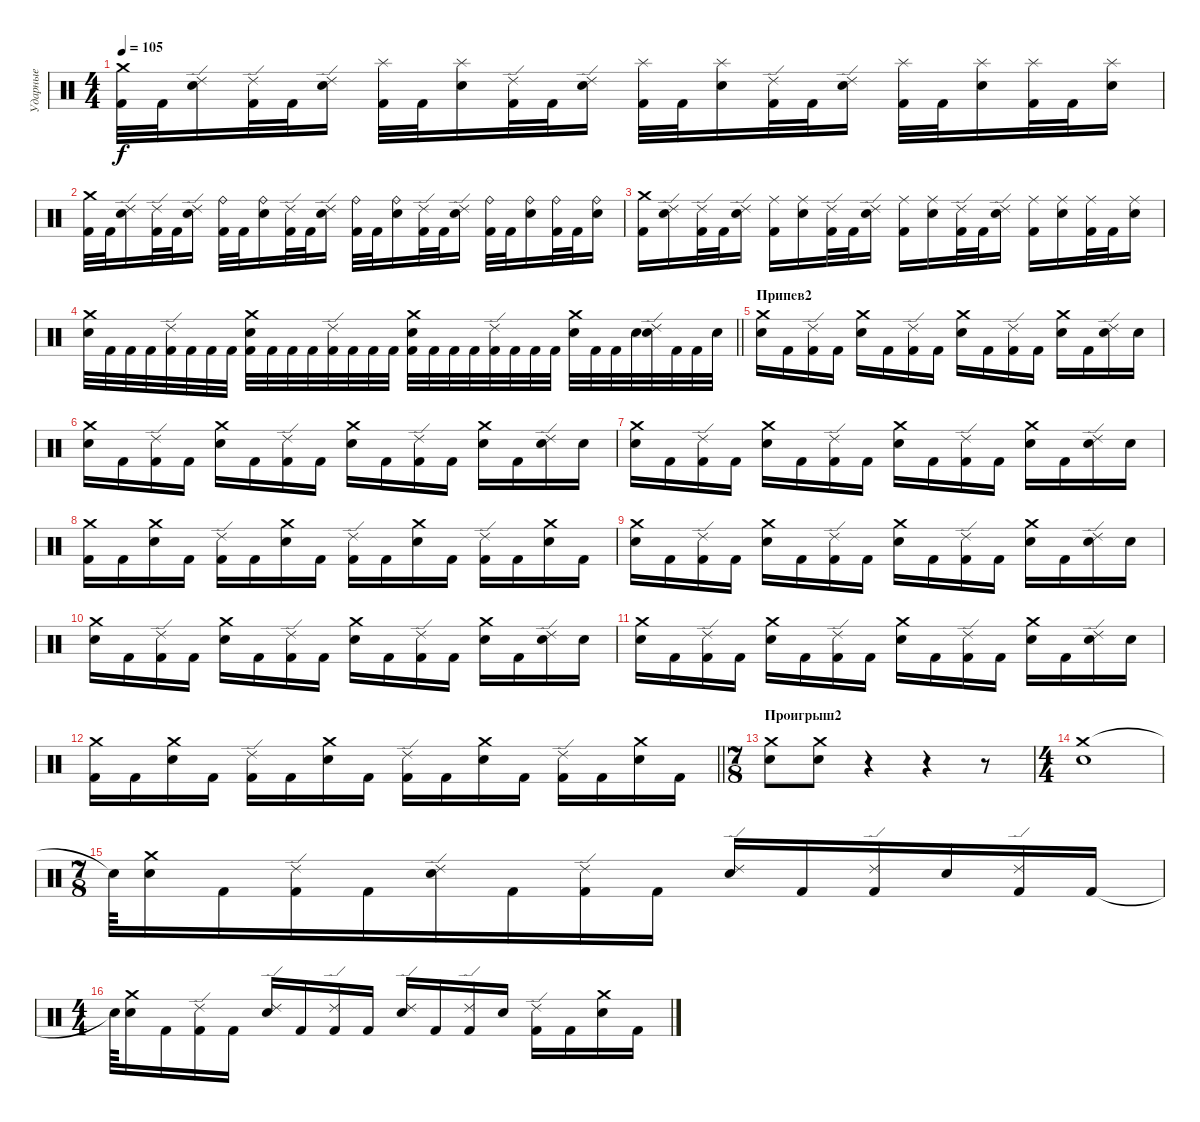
\track ("Ударные" "Ударные") {instrument percussion}
\staff {score}
\articulation defaults
\ts (4 4)
\tempo 105
\clef neutral
\ks c
("Crash medium (hit)" "Kick (hit) 2").32{dy f} "Kick (hit) 2".32 ("Ride (edge) 2" "Electric Snare (hit)").16 ("Ride (edge) 2" "Kick (hit) 2").32 "Kick (hit) 2".32 ("Ride (edge) 2" "Electric Snare (hit)").16 ("Splash (hit)" "Kick (hit) 2").32 "Kick (hit) 2".32 ("Splash (hit)" "Electric Snare (hit)").16 ("Ride (edge) 2" "Kick (hit) 2").32 "Kick (hit) 2".32 ("Ride (edge) 2" "Electric Snare (hit)").16 ("Splash (hit)" "Kick (hit) 2").32 "Kick (hit) 2".32 ("Splash (hit)" "Electric Snare (hit)").16 ("Ride (edge) 2" "Kick (hit) 2").32 "Kick (hit) 2".32 ("Ride (edge) 2" "Electric Snare (hit)").16 ("Splash (hit)" "Kick (hit) 2").32 "Kick (hit) 2".32 ("Splash (hit)" "Electric Snare (hit)").16 ("Splash (hit)" "Kick (hit) 2").32 "Kick (hit) 2".32 ("Splash (hit)" "Electric Snare (hit)").16 |
("Crash medium (hit)" "Kick (hit) 2").32 "Kick (hit) 2".32 ("Ride (edge) 2" "Electric Snare (hit)").16 ("Ride (edge) 2" "Kick (hit) 2").32 "Kick (hit) 2".32 ("Ride (edge) 2" "Electric Snare (hit)").16 ("Ride (bell)" "Kick (hit) 2").32 "Kick (hit) 2".32 ("Ride (bell)" "Electric Snare (hit)").16 ("Ride (edge) 2" "Kick (hit) 2").32 "Kick (hit) 2".32 ("Ride (edge) 2" "Electric Snare (hit)").16 ("Ride (bell)" "Kick (hit) 2").32 "Kick (hit) 2".32 ("Ride (bell)" "Electric Snare (hit)").16 ("Ride (edge) 2" "Kick (hit) 2").32 "Kick (hit) 2".32 ("Ride (edge) 2" "Electric Snare (hit)").16 ("Ride (bell)" "Kick (hit) 2").32 "Kick (hit) 2".32 ("Ride (bell)" "Electric Snare (hit)").16 ("Ride (bell)" "Kick (hit) 2").32 "Kick (hit) 2".32 ("Ride (bell)" "Electric Snare (hit)").16 |
("Crash medium (hit)" "Kick (hit) 2").16 ("Ride (edge) 2" "Electric Snare (hit)").16 ("Ride (edge) 2" "Kick (hit) 2").32 "Kick (hit) 2".32 ("Ride (edge) 2" "Electric Snare (hit)").16 ("Ride (middle)" "Kick (hit) 2").16 ("Ride (middle)" "Electric Snare (hit)").16 ("Ride (edge) 2" "Kick (hit) 2").32 "Kick (hit) 2".32 ("Ride (edge) 2" "Electric Snare (hit)").16 ("Ride (middle)" "Kick (hit) 2").16 ("Ride (middle)" "Electric Snare (hit)").16 ("Ride (edge) 2" "Kick (hit) 2").32 "Kick (hit) 2".32 ("Ride (edge) 2" "Electric Snare (hit)").16 ("Ride (middle)" "Kick (hit) 2").16 ("Ride (middle)" "Electric Snare (hit)").16 ("Ride (middle)" "Kick (hit) 2").32 "Kick (hit) 2".32 ("Ride (middle)" "Electric Snare (hit)").16 |
\barLineRight lightlight
("Crash medium (hit)" "Electric Snare (hit)").32 "Kick (hit) 2".32 "Kick (hit) 2".32 "Kick (hit) 2".32 ("Ride (edge) 2" "Kick (hit) 2").32 "Kick (hit) 2".32 "Kick (hit) 2".32 "Kick (hit) 2".32 ("Crash medium (hit)" "Kick (hit) 2" "Electric Snare (hit)").32 "Kick (hit) 2".32 "Kick (hit) 2".32 "Kick (hit) 2".32 ("Ride (edge) 2" "Kick (hit) 2").32 "Kick (hit) 2".32 "Kick (hit) 2".32 "Kick (hit) 2".32 ("Crash medium (hit)" "Kick (hit) 2" "Electric Snare (hit)").32 "Kick (hit) 2".32 "Kick (hit) 2".32 "Kick (hit) 2".32 ("Ride (edge) 2" "Kick (hit) 2").32 "Kick (hit) 2".32 "Kick (hit) 2".32 "Kick (hit) 2".32 ("Crash medium (hit)" "Electric Snare (hit)").32 "Kick (hit) 2".32 "Kick (hit) 2".32 "Electric Snare (hit)".32 ("Ride (edge) 2" "Electric Snare (hit)").32 "Kick (hit) 2".32 "Kick (hit) 2".32 "Electric Snare (hit)".32 |
\section ("" "Припев2")
("Crash medium (hit)" "Electric Snare (hit)").16 "Kick (hit) 2".16 ("Ride (edge) 2" "Kick (hit) 2").16 "Kick (hit) 2".16 ("Crash medium (hit)" "Electric Snare (hit)").16 "Kick (hit) 2".16 ("Ride (edge) 2" "Kick (hit) 2").16 "Kick (hit) 2".16 ("Crash medium (hit)" "Electric Snare (hit)").16 "Kick (hit) 2".16 ("Ride (edge) 2" "Kick (hit) 2").16 "Kick (hit) 2".16 ("Crash medium (hit)" "Electric Snare (hit)").16 "Kick (hit) 2".16 ("Ride (edge) 2" "Electric Snare (hit)").16 "Electric Snare (hit)".16 |
("Crash medium (hit)" "Electric Snare (hit)").16 "Kick (hit) 2".16 ("Ride (edge) 2" "Kick (hit) 2").16 "Kick (hit) 2".16 ("Crash medium (hit)" "Electric Snare (hit)").16 "Kick (hit) 2".16 ("Ride (edge) 2" "Kick (hit) 2").16 "Kick (hit) 2".16 ("Crash medium (hit)" "Electric Snare (hit)").16 "Kick (hit) 2".16 ("Ride (edge) 2" "Kick (hit) 2").16 "Kick (hit) 2".16 ("Crash medium (hit)" "Electric Snare (hit)").16 "Kick (hit) 2".16 ("Ride (edge) 2" "Electric Snare (hit)").16 "Electric Snare (hit)".16 |
("Crash medium (hit)" "Electric Snare (hit)").16 "Kick (hit) 2".16 ("Ride (edge) 2" "Kick (hit) 2").16 "Kick (hit) 2".16 ("Crash medium (hit)" "Electric Snare (hit)").16 "Kick (hit) 2".16 ("Ride (edge) 2" "Kick (hit) 2").16 "Kick (hit) 2".16 ("Crash medium (hit)" "Electric Snare (hit)").16 "Kick (hit) 2".16 ("Ride (edge) 2" "Kick (hit) 2").16 "Kick (hit) 2".16 ("Crash medium (hit)" "Electric Snare (hit)").16 "Kick (hit) 2".16 ("Ride (edge) 2" "Electric Snare (hit)").16 "Electric Snare (hit)".16 |
("Crash medium (hit)" "Kick (hit) 2").16 "Kick (hit) 2".16 ("Crash medium (hit)" "Electric Snare (hit)").16 "Kick (hit) 2".16 ("Ride (edge) 2" "Kick (hit) 2").16 "Kick (hit) 2".16 ("Crash medium (hit)" "Electric Snare (hit)").16 "Kick (hit) 2".16 ("Ride (edge) 2" "Kick (hit) 2").16 "Kick (hit) 2".16 ("Crash medium (hit)" "Electric Snare (hit)").16 "Kick (hit) 2".16 ("Ride (edge) 2" "Kick (hit) 2").16 "Kick (hit) 2".16 ("Crash medium (hit)" "Electric Snare (hit)").16 "Kick (hit) 2".16 |
("Crash medium (hit)" "Electric Snare (hit)").16 "Kick (hit) 2".16 ("Ride (edge) 2" "Kick (hit) 2").16 "Kick (hit) 2".16 ("Crash medium (hit)" "Electric Snare (hit)").16 "Kick (hit) 2".16 ("Ride (edge) 2" "Kick (hit) 2").16 "Kick (hit) 2".16 ("Crash medium (hit)" "Electric Snare (hit)").16 "Kick (hit) 2".16 ("Ride (edge) 2" "Kick (hit) 2").16 "Kick (hit) 2".16 ("Crash medium (hit)" "Electric Snare (hit)").16 "Kick (hit) 2".16 ("Ride (edge) 2" "Electric Snare (hit)").16 "Electric Snare (hit)".16 |
("Crash medium (hit)" "Electric Snare (hit)").16 "Kick (hit) 2".16 ("Ride (edge) 2" "Kick (hit) 2").16 "Kick (hit) 2".16 ("Crash medium (hit)" "Electric Snare (hit)").16 "Kick (hit) 2".16 ("Ride (edge) 2" "Kick (hit) 2").16 "Kick (hit) 2".16 ("Crash medium (hit)" "Electric Snare (hit)").16 "Kick (hit) 2".16 ("Ride (edge) 2" "Kick (hit) 2").16 "Kick (hit) 2".16 ("Crash medium (hit)" "Electric Snare (hit)").16 "Kick (hit) 2".16 ("Ride (edge) 2" "Electric Snare (hit)").16 "Electric Snare (hit)".16 |
("Crash medium (hit)" "Electric Snare (hit)").16 "Kick (hit) 2".16 ("Ride (edge) 2" "Kick (hit) 2").16 "Kick (hit) 2".16 ("Crash medium (hit)" "Electric Snare (hit)").16 "Kick (hit) 2".16 ("Ride (edge) 2" "Kick (hit) 2").16 "Kick (hit) 2".16 ("Crash medium (hit)" "Electric Snare (hit)").16 "Kick (hit) 2".16 ("Ride (edge) 2" "Kick (hit) 2").16 "Kick (hit) 2".16 ("Crash medium (hit)" "Electric Snare (hit)").16 "Kick (hit) 2".16 ("Ride (edge) 2" "Electric Snare (hit)").16 "Electric Snare (hit)".16 |
\barLineRight lightlight
("Crash medium (hit)" "Kick (hit) 2").16 "Kick (hit) 2".16 ("Crash medium (hit)" "Electric Snare (hit)").16 "Kick (hit) 2".16 ("Ride (edge) 2" "Kick (hit) 2").16 "Kick (hit) 2".16 ("Crash medium (hit)" "Electric Snare (hit)").16 "Kick (hit) 2".16 ("Ride (edge) 2" "Kick (hit) 2").16 "Kick (hit) 2".16 ("Crash medium (hit)" "Electric Snare (hit)").16 "Kick (hit) 2".16 ("Ride (edge) 2" "Kick (hit) 2").16 "Kick (hit) 2".16 ("Crash medium (hit)" "Electric Snare (hit)").16 "Kick (hit) 2".16 |
\ts (7 8)
\section ("" "Проигрыш2")
("Crash medium (hit)" "Electric Snare (hit)").8 ("Crash medium (hit)" "Electric Snare (hit)").8 r.4 r.4 r.8 |
\ts (4 4)
("Crash medium (hit)" "Electric Snare (hit)").1 |
\ts (7 8)
"Snare (hit)"{t}.64 ("Crash medium (hit)" "Electric Snare (hit)").16 "Kick (hit) 2".16 ("Ride (edge) 2" "Kick (hit) 2").16 "Kick (hit) 2".16 ("Ride (edge) 2" "Electric Snare (hit)").16 "Kick (hit) 2".16 ("Ride (edge) 2" "Kick (hit) 2").16 "Kick (hit) 2".16 ("Ride (edge) 2" "Electric Snare (hit)").16 "Kick (hit) 2".16 ("Ride (edge) 2" "Kick (hit) 2").16 "Electric Snare (hit)".16 ("Ride (edge) 2" "Kick (hit) 2").16 "Kick (hit) 2".16 |
\ts (4 4)
"Snare (hit)"{t}.64 ("Crash medium (hit)" "Electric Snare (hit)").16 "Kick (hit) 2".16 ("Ride (edge) 2" "Kick (hit) 2").16 "Kick (hit) 2".16 ("Ride (edge) 2" "Electric Snare (hit)").16 "Kick (hit) 2".16 ("Ride (edge) 2" "Kick (hit) 2").16 "Kick (hit) 2".16 ("Ride (edge) 2" "Electric Snare (hit)").16 "Kick (hit) 2".16 ("Ride (edge) 2" "Kick (hit) 2").16 "Electric Snare (hit)".16 ("Ride (edge) 2" "Kick (hit) 2").16 "Kick (hit) 2".16 ("Crash medium (hit)" "Electric Snare (hit)").16 "Kick (hit) 2".16
